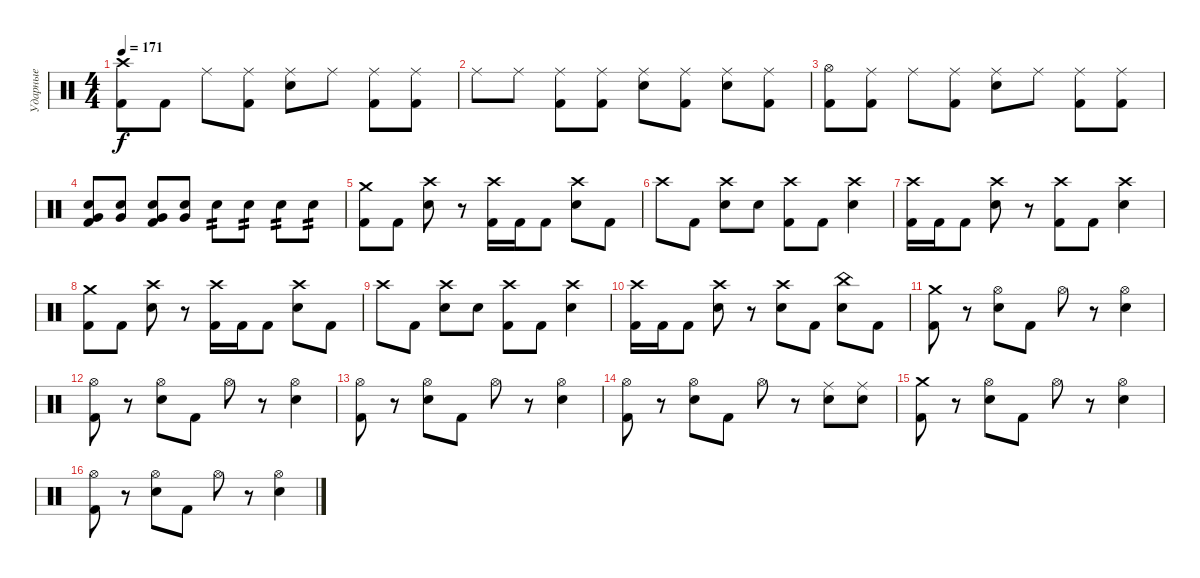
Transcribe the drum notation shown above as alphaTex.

\track ("Ударные" "Ударные") {instrument percussion}
\staff {score}
\articulation defaults
\ts (4 4)
\tempo 171
\clef neutral
\ks c
("Crash high (hit)" "Kick (hit) 2").8{dy f} "Kick (hit) 2".8 "Ride (middle)".8 ("Ride (middle)" "Kick (hit) 2").8 ("Ride (middle)" "Electric Snare (hit)").8 "Ride (middle)".8 ("Ride (middle)" "Kick (hit) 2").8 ("Ride (middle)" "Kick (hit) 2").8 |
"Ride (middle)".8 "Ride (middle)".8 ("Ride (middle)" "Kick (hit) 2").8 ("Ride (middle)" "Kick (hit) 2").8 ("Ride (middle)" "Electric Snare (hit)").8 ("Ride (middle)" "Kick (hit) 2").8 ("Ride (middle)" "Electric Snare (hit)").8 ("Ride (middle)" "Kick (hit) 2").8 |
("Hi-Hat (open)" "Kick (hit) 2").8 ("Ride (middle)" "Kick (hit) 2").8 "Ride (middle)".8 ("Ride (middle)" "Kick (hit) 2").8 ("Ride (middle)" "Electric Snare (hit)").8 "Ride (middle)".8 ("Ride (middle)" "Kick (hit) 2").8 ("Ride (middle)" "Kick (hit) 2").8 |
("Electric Snare (hit)" "Very Low Tom (hit)" "Kick (hit) 2").8 ("Electric Snare (hit)" "Very Low Tom (hit)").8 ("Electric Snare (hit)" "Very Low Tom (hit)" "Kick (hit) 2").8 ("Electric Snare (hit)" "Very Low Tom (hit)").8 "Electric Snare (hit)".8{tp 2} "Electric Snare (hit)".8{tp 2} "Electric Snare (hit)".8{tp 2} "Electric Snare (hit)".8{tp 2} |
("Crash medium (hit)" "Kick (hit) 2").8 "Kick (hit) 2".8 ("Crash high (hit)" "Electric Snare (hit)").8 r.8 ("Crash high (hit)" "Kick (hit) 2").16 "Kick (hit) 2".16 "Kick (hit) 2".8 ("Crash high (hit)" "Electric Snare (hit)").8 "Kick (hit) 2".8 |
"Crash high (hit)".8 "Kick (hit) 2".8 ("Crash high (hit)" "Electric Snare (hit)").8 "Electric Snare (hit)".8 ("Crash high (hit)" "Kick (hit) 2").8 "Kick (hit) 2".8 ("Crash high (hit)" "Electric Snare (hit)").4 |
("Crash high (hit)" "Kick (hit) 2").16 "Kick (hit) 2".16 "Kick (hit) 2".8 ("Crash high (hit)" "Electric Snare (hit)").8 r.8 ("Crash high (hit)" "Kick (hit) 2").8 "Kick (hit) 2".8 ("Crash high (hit)" "Electric Snare (hit)").4 |
("Crash medium (hit)" "Kick (hit) 2").8 "Kick (hit) 2".8 ("Crash high (hit)" "Electric Snare (hit)").8 r.8 ("Crash high (hit)" "Kick (hit) 2").16 "Kick (hit) 2".16 "Kick (hit) 2".8 ("Crash high (hit)" "Electric Snare (hit)").8 "Kick (hit) 2".8 |
"Crash high (hit)".8 "Kick (hit) 2".8 ("Crash high (hit)" "Electric Snare (hit)").8 "Electric Snare (hit)".8 ("Crash high (hit)" "Kick (hit) 2").8 "Kick (hit) 2".8 ("Crash high (hit)" "Electric Snare (hit)").4 |
("Crash high (hit)" "Kick (hit) 2").16 "Kick (hit) 2".16 "Kick (hit) 2".8 ("Crash high (hit)" "Electric Snare (hit)").8 r.8 ("Crash high (hit)" "Electric Snare (hit)").8 "Kick (hit) 2".8 ("China (hit)" "Electric Snare (hit)").8 "Kick (hit) 2".8 |
("Crash medium (hit)" "Kick (hit) 2").8 r.8 ("Hi-Hat (open)" "Electric Snare (hit)").8 "Kick (hit) 2".8 "Hi-Hat (open)".8 r.8 ("Hi-Hat (open)" "Electric Snare (hit)").4 |
("Hi-Hat (open)" "Kick (hit) 2").8 r.8 ("Hi-Hat (open)" "Electric Snare (hit)").8 "Kick (hit) 2".8 "Hi-Hat (open)".8 r.8 ("Hi-Hat (open)" "Electric Snare (hit)").4 |
("Hi-Hat (open)" "Kick (hit) 2").8 r.8 ("Hi-Hat (open)" "Electric Snare (hit)").8 "Kick (hit) 2".8 "Hi-Hat (open)".8 r.8 ("Hi-Hat (open)" "Electric Snare (hit)").4 |
("Hi-Hat (open)" "Kick (hit) 2").8 r.8 ("Hi-Hat (open)" "Electric Snare (hit)").8 "Kick (hit) 2".8 "Hi-Hat (open)".8 r.8 ("Ride (middle)" "Electric Snare (hit)").8 ("Ride (middle)" "Electric Snare (hit)").8 |
("Crash medium (hit)" "Kick (hit) 2").8 r.8 ("Hi-Hat (open)" "Electric Snare (hit)").8 "Kick (hit) 2".8 "Hi-Hat (open)".8 r.8 ("Hi-Hat (open)" "Electric Snare (hit)").4 |
("Hi-Hat (open)" "Kick (hit) 2").8 r.8 ("Hi-Hat (open)" "Electric Snare (hit)").8 "Kick (hit) 2".8 "Hi-Hat (open)".8 r.8 ("Hi-Hat (open)" "Electric Snare (hit)").4
